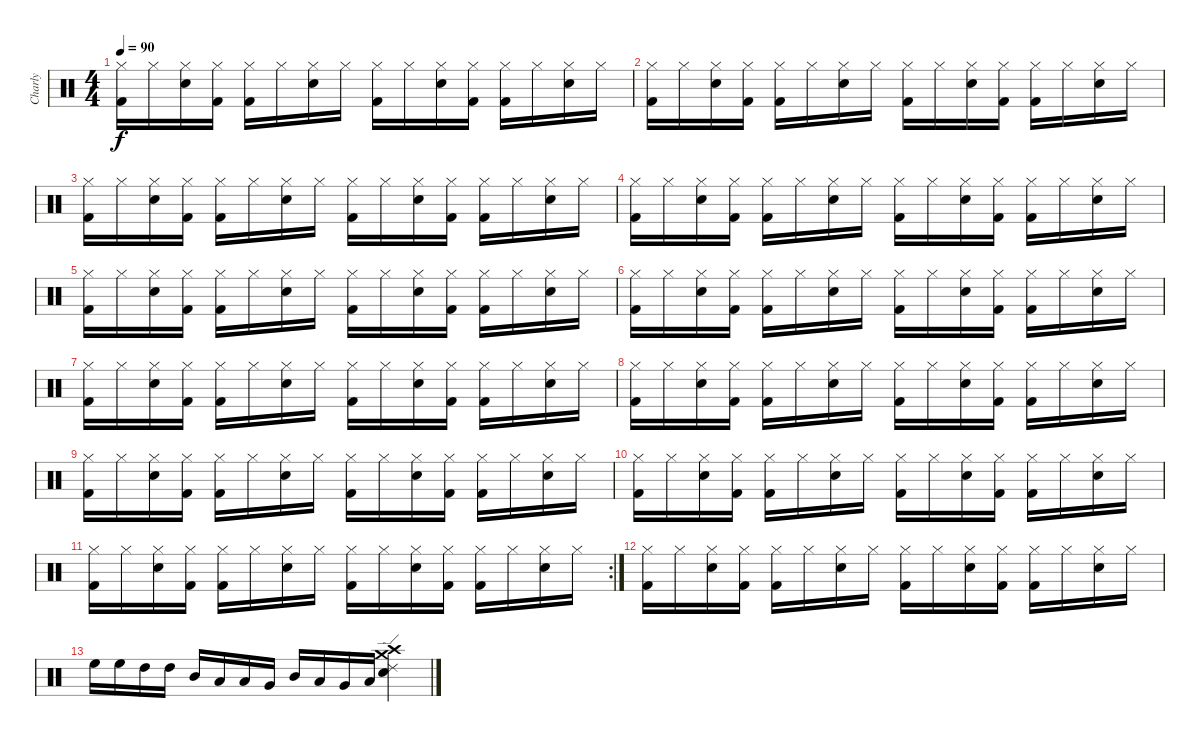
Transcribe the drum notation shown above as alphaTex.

\track ("Charly" "Charly") {instrument percussion}
\staff {score}
\articulation defaults
\ts (4 4)
\tempo 90
\clef neutral
\ks c
("Hi-Hat (closed)" "Kick (hit) 2").16{dy f} "Hi-Hat (closed)".16 ("Hi-Hat (closed)" "Electric Snare (hit)").16 ("Hi-Hat (closed)" "Kick (hit) 2").16 ("Hi-Hat (closed)" "Kick (hit) 2").16 "Hi-Hat (closed)".16 ("Hi-Hat (closed)" "Electric Snare (hit)").16 "Hi-Hat (closed)".16 ("Hi-Hat (closed)" "Kick (hit) 2").16 "Hi-Hat (closed)".16 ("Hi-Hat (closed)" "Electric Snare (hit)").16 ("Hi-Hat (closed)" "Kick (hit) 2").16 ("Hi-Hat (closed)" "Kick (hit) 2").16 "Hi-Hat (closed)".16 ("Hi-Hat (closed)" "Electric Snare (hit)").16 "Hi-Hat (closed)".16 |
("Hi-Hat (closed)" "Kick (hit) 2").16 "Hi-Hat (closed)".16 ("Hi-Hat (closed)" "Electric Snare (hit)").16 ("Hi-Hat (closed)" "Kick (hit) 2").16 ("Hi-Hat (closed)" "Kick (hit) 2").16 "Hi-Hat (closed)".16 ("Hi-Hat (closed)" "Electric Snare (hit)").16 "Hi-Hat (closed)".16 ("Hi-Hat (closed)" "Kick (hit) 2").16 "Hi-Hat (closed)".16 ("Hi-Hat (closed)" "Electric Snare (hit)").16 ("Hi-Hat (closed)" "Kick (hit) 2").16 ("Hi-Hat (closed)" "Kick (hit) 2").16 "Hi-Hat (closed)".16 ("Hi-Hat (closed)" "Electric Snare (hit)").16 "Hi-Hat (closed)".16 |
("Hi-Hat (closed)" "Kick (hit) 2").16 "Hi-Hat (closed)".16 ("Hi-Hat (closed)" "Electric Snare (hit)").16 ("Hi-Hat (closed)" "Kick (hit) 2").16 ("Hi-Hat (closed)" "Kick (hit) 2").16 "Hi-Hat (closed)".16 ("Hi-Hat (closed)" "Electric Snare (hit)").16 "Hi-Hat (closed)".16 ("Hi-Hat (closed)" "Kick (hit) 2").16 "Hi-Hat (closed)".16 ("Hi-Hat (closed)" "Electric Snare (hit)").16 ("Hi-Hat (closed)" "Kick (hit) 2").16 ("Hi-Hat (closed)" "Kick (hit) 2").16 "Hi-Hat (closed)".16 ("Hi-Hat (closed)" "Electric Snare (hit)").16 "Hi-Hat (closed)".16 |
("Hi-Hat (closed)" "Kick (hit) 2").16 "Hi-Hat (closed)".16 ("Hi-Hat (closed)" "Electric Snare (hit)").16 ("Hi-Hat (closed)" "Kick (hit) 2").16 ("Hi-Hat (closed)" "Kick (hit) 2").16 "Hi-Hat (closed)".16 ("Hi-Hat (closed)" "Electric Snare (hit)").16 "Hi-Hat (closed)".16 ("Hi-Hat (closed)" "Kick (hit) 2").16 "Hi-Hat (closed)".16 ("Hi-Hat (closed)" "Electric Snare (hit)").16 ("Hi-Hat (closed)" "Kick (hit) 2").16 ("Hi-Hat (closed)" "Kick (hit) 2").16 "Hi-Hat (closed)".16 ("Hi-Hat (closed)" "Electric Snare (hit)").16 "Hi-Hat (closed)".16 |
("Hi-Hat (closed)" "Kick (hit) 2").16 "Hi-Hat (closed)".16 ("Hi-Hat (closed)" "Electric Snare (hit)").16 ("Hi-Hat (closed)" "Kick (hit) 2").16 ("Hi-Hat (closed)" "Kick (hit) 2").16 "Hi-Hat (closed)".16 ("Hi-Hat (closed)" "Electric Snare (hit)").16 "Hi-Hat (closed)".16 ("Hi-Hat (closed)" "Kick (hit) 2").16 "Hi-Hat (closed)".16 ("Hi-Hat (closed)" "Electric Snare (hit)").16 ("Hi-Hat (closed)" "Kick (hit) 2").16 ("Hi-Hat (closed)" "Kick (hit) 2").16 "Hi-Hat (closed)".16 ("Hi-Hat (closed)" "Electric Snare (hit)").16 "Hi-Hat (closed)".16 |
("Hi-Hat (closed)" "Kick (hit) 2").16 "Hi-Hat (closed)".16 ("Hi-Hat (closed)" "Electric Snare (hit)").16 ("Hi-Hat (closed)" "Kick (hit) 2").16 ("Hi-Hat (closed)" "Kick (hit) 2").16 "Hi-Hat (closed)".16 ("Hi-Hat (closed)" "Electric Snare (hit)").16 "Hi-Hat (closed)".16 ("Hi-Hat (closed)" "Kick (hit) 2").16 "Hi-Hat (closed)".16 ("Hi-Hat (closed)" "Electric Snare (hit)").16 ("Hi-Hat (closed)" "Kick (hit) 2").16 ("Hi-Hat (closed)" "Kick (hit) 2").16 "Hi-Hat (closed)".16 ("Hi-Hat (closed)" "Electric Snare (hit)").16 "Hi-Hat (closed)".16 |
("Hi-Hat (closed)" "Kick (hit) 2").16 "Hi-Hat (closed)".16 ("Hi-Hat (closed)" "Electric Snare (hit)").16 ("Hi-Hat (closed)" "Kick (hit) 2").16 ("Hi-Hat (closed)" "Kick (hit) 2").16 "Hi-Hat (closed)".16 ("Hi-Hat (closed)" "Electric Snare (hit)").16 "Hi-Hat (closed)".16 ("Hi-Hat (closed)" "Kick (hit) 2").16 "Hi-Hat (closed)".16 ("Hi-Hat (closed)" "Electric Snare (hit)").16 ("Hi-Hat (closed)" "Kick (hit) 2").16 ("Hi-Hat (closed)" "Kick (hit) 2").16 "Hi-Hat (closed)".16 ("Hi-Hat (closed)" "Electric Snare (hit)").16 "Hi-Hat (closed)".16 |
("Hi-Hat (closed)" "Kick (hit) 2").16 "Hi-Hat (closed)".16 ("Hi-Hat (closed)" "Electric Snare (hit)").16 ("Hi-Hat (closed)" "Kick (hit) 2").16 ("Hi-Hat (closed)" "Kick (hit) 2").16 "Hi-Hat (closed)".16 ("Hi-Hat (closed)" "Electric Snare (hit)").16 "Hi-Hat (closed)".16 ("Hi-Hat (closed)" "Kick (hit) 2").16 "Hi-Hat (closed)".16 ("Hi-Hat (closed)" "Electric Snare (hit)").16 ("Hi-Hat (closed)" "Kick (hit) 2").16 ("Hi-Hat (closed)" "Kick (hit) 2").16 "Hi-Hat (closed)".16 ("Hi-Hat (closed)" "Electric Snare (hit)").16 "Hi-Hat (closed)".16 |
("Hi-Hat (closed)" "Kick (hit) 2").16 "Hi-Hat (closed)".16 ("Hi-Hat (closed)" "Electric Snare (hit)").16 ("Hi-Hat (closed)" "Kick (hit) 2").16 ("Hi-Hat (closed)" "Kick (hit) 2").16 "Hi-Hat (closed)".16 ("Hi-Hat (closed)" "Electric Snare (hit)").16 "Hi-Hat (closed)".16 ("Hi-Hat (closed)" "Kick (hit) 2").16 "Hi-Hat (closed)".16 ("Hi-Hat (closed)" "Electric Snare (hit)").16 ("Hi-Hat (closed)" "Kick (hit) 2").16 ("Hi-Hat (closed)" "Kick (hit) 2").16 "Hi-Hat (closed)".16 ("Hi-Hat (closed)" "Electric Snare (hit)").16 "Hi-Hat (closed)".16 |
("Hi-Hat (closed)" "Kick (hit) 2").16 "Hi-Hat (closed)".16 ("Hi-Hat (closed)" "Electric Snare (hit)").16 ("Hi-Hat (closed)" "Kick (hit) 2").16 ("Hi-Hat (closed)" "Kick (hit) 2").16 "Hi-Hat (closed)".16 ("Hi-Hat (closed)" "Electric Snare (hit)").16 "Hi-Hat (closed)".16 ("Hi-Hat (closed)" "Kick (hit) 2").16 "Hi-Hat (closed)".16 ("Hi-Hat (closed)" "Electric Snare (hit)").16 ("Hi-Hat (closed)" "Kick (hit) 2").16 ("Hi-Hat (closed)" "Kick (hit) 2").16 "Hi-Hat (closed)".16 ("Hi-Hat (closed)" "Electric Snare (hit)").16 "Hi-Hat (closed)".16 |
\rc 2
("Hi-Hat (closed)" "Kick (hit) 2").16 "Hi-Hat (closed)".16 ("Hi-Hat (closed)" "Electric Snare (hit)").16 ("Hi-Hat (closed)" "Kick (hit) 2").16 ("Hi-Hat (closed)" "Kick (hit) 2").16 "Hi-Hat (closed)".16 ("Hi-Hat (closed)" "Electric Snare (hit)").16 "Hi-Hat (closed)".16 ("Hi-Hat (closed)" "Kick (hit) 2").16 "Hi-Hat (closed)".16 ("Hi-Hat (closed)" "Electric Snare (hit)").16 ("Hi-Hat (closed)" "Kick (hit) 2").16 ("Hi-Hat (closed)" "Kick (hit) 2").16 "Hi-Hat (closed)".16 ("Hi-Hat (closed)" "Electric Snare (hit)").16 "Hi-Hat (closed)".16 |
("Hi-Hat (closed)" "Kick (hit) 2").16 "Hi-Hat (closed)".16 ("Hi-Hat (closed)" "Electric Snare (hit)").16 ("Hi-Hat (closed)" "Kick (hit) 2").16 ("Hi-Hat (closed)" "Kick (hit) 2").16 "Hi-Hat (closed)".16 ("Hi-Hat (closed)" "Electric Snare (hit)").16 "Hi-Hat (closed)".16 ("Hi-Hat (closed)" "Kick (hit) 2").16 "Hi-Hat (closed)".16 ("Hi-Hat (closed)" "Electric Snare (hit)").16 ("Hi-Hat (closed)" "Kick (hit) 2").16 ("Hi-Hat (closed)" "Kick (hit) 2").16 "Hi-Hat (closed)".16 ("Hi-Hat (closed)" "Electric Snare (hit)").16 "Hi-Hat (closed)".16 |
"High Floor Tom (hit)".16 "High Floor Tom (hit)".16 "High Tom (hit)".16 "High Tom (hit)".16 "Mid Tom (hit)".16 "Low Tom (hit)".16 "Low Tom (hit)".16 "Very Low Tom (hit)".16 "Mid Tom (hit)".16 "Low Tom (hit)".16 "Very Low Tom (hit)".16 "Low Floor Tom (hit)".16 ("Ride (edge) 2" "Electric Snare (hit)" "Crash high (hit)" "Crash medium (hit)").4
